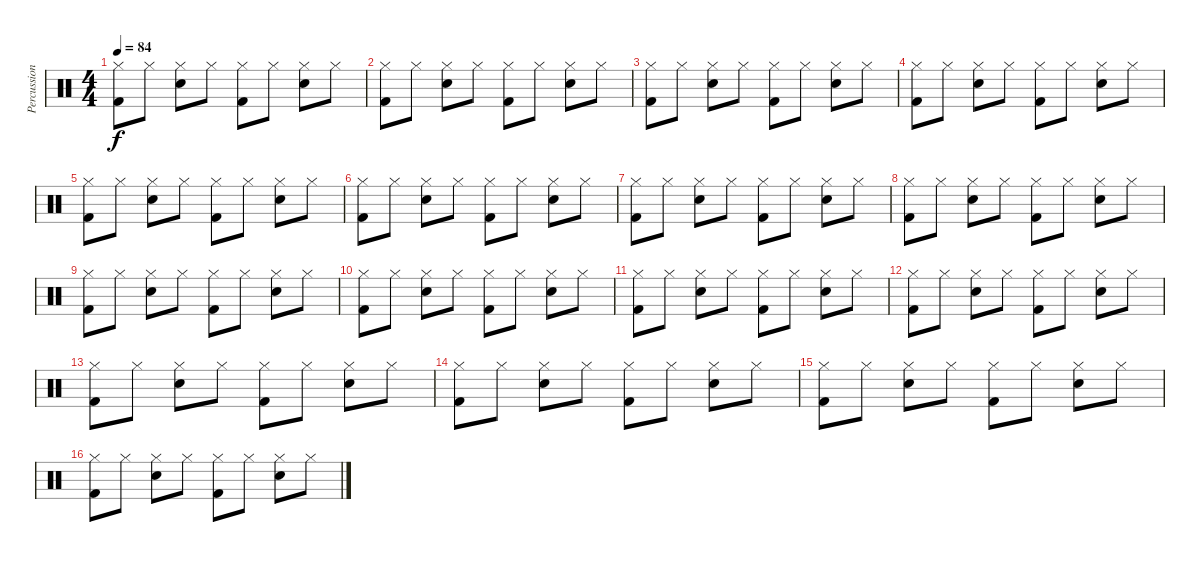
\track ("Percussion" "Percussion") {instrument percussion}
\staff {score}
\articulation defaults
\ts (4 4)
\tempo 84
\clef neutral
\ks c
("Hi-Hat (closed)" "Kick (hit) 2").8{dy f} "Hi-Hat (closed)".8 ("Hi-Hat (closed)" "Electric Snare (hit)").8 "Hi-Hat (closed)".8 ("Hi-Hat (closed)" "Kick (hit) 2").8 "Hi-Hat (closed)".8 ("Hi-Hat (closed)" "Electric Snare (hit)").8 "Hi-Hat (closed)".8 |
("Hi-Hat (closed)" "Kick (hit) 2").8 "Hi-Hat (closed)".8 ("Hi-Hat (closed)" "Electric Snare (hit)").8 "Hi-Hat (closed)".8 ("Hi-Hat (closed)" "Kick (hit) 2").8 "Hi-Hat (closed)".8 ("Hi-Hat (closed)" "Electric Snare (hit)").8 "Hi-Hat (closed)".8 |
("Hi-Hat (closed)" "Kick (hit) 2").8 "Hi-Hat (closed)".8 ("Hi-Hat (closed)" "Electric Snare (hit)").8 "Hi-Hat (closed)".8 ("Hi-Hat (closed)" "Kick (hit) 2").8 "Hi-Hat (closed)".8 ("Hi-Hat (closed)" "Electric Snare (hit)").8 "Hi-Hat (closed)".8 |
("Hi-Hat (closed)" "Kick (hit) 2").8 "Hi-Hat (closed)".8 ("Hi-Hat (closed)" "Electric Snare (hit)").8 "Hi-Hat (closed)".8 ("Hi-Hat (closed)" "Kick (hit) 2").8 "Hi-Hat (closed)".8 ("Hi-Hat (closed)" "Electric Snare (hit)").8 "Hi-Hat (closed)".8 |
("Hi-Hat (closed)" "Kick (hit) 2").8 "Hi-Hat (closed)".8 ("Hi-Hat (closed)" "Electric Snare (hit)").8 "Hi-Hat (closed)".8 ("Hi-Hat (closed)" "Kick (hit) 2").8 "Hi-Hat (closed)".8 ("Hi-Hat (closed)" "Electric Snare (hit)").8 "Hi-Hat (closed)".8 |
("Hi-Hat (closed)" "Kick (hit) 2").8 "Hi-Hat (closed)".8 ("Hi-Hat (closed)" "Electric Snare (hit)").8 "Hi-Hat (closed)".8 ("Hi-Hat (closed)" "Kick (hit) 2").8 "Hi-Hat (closed)".8 ("Hi-Hat (closed)" "Electric Snare (hit)").8 "Hi-Hat (closed)".8 |
("Hi-Hat (closed)" "Kick (hit) 2").8 "Hi-Hat (closed)".8 ("Hi-Hat (closed)" "Electric Snare (hit)").8 "Hi-Hat (closed)".8 ("Hi-Hat (closed)" "Kick (hit) 2").8 "Hi-Hat (closed)".8 ("Hi-Hat (closed)" "Electric Snare (hit)").8 "Hi-Hat (closed)".8 |
("Hi-Hat (closed)" "Kick (hit) 2").8 "Hi-Hat (closed)".8 ("Hi-Hat (closed)" "Electric Snare (hit)").8 "Hi-Hat (closed)".8 ("Hi-Hat (closed)" "Kick (hit) 2").8 "Hi-Hat (closed)".8 ("Hi-Hat (closed)" "Electric Snare (hit)").8 "Hi-Hat (closed)".8 |
("Hi-Hat (closed)" "Kick (hit) 2").8 "Hi-Hat (closed)".8 ("Hi-Hat (closed)" "Electric Snare (hit)").8 "Hi-Hat (closed)".8 ("Hi-Hat (closed)" "Kick (hit) 2").8 "Hi-Hat (closed)".8 ("Hi-Hat (closed)" "Electric Snare (hit)").8 "Hi-Hat (closed)".8 |
("Hi-Hat (closed)" "Kick (hit) 2").8 "Hi-Hat (closed)".8 ("Hi-Hat (closed)" "Electric Snare (hit)").8 "Hi-Hat (closed)".8 ("Hi-Hat (closed)" "Kick (hit) 2").8 "Hi-Hat (closed)".8 ("Hi-Hat (closed)" "Electric Snare (hit)").8 "Hi-Hat (closed)".8 |
("Hi-Hat (closed)" "Kick (hit) 2").8 "Hi-Hat (closed)".8 ("Hi-Hat (closed)" "Electric Snare (hit)").8 "Hi-Hat (closed)".8 ("Hi-Hat (closed)" "Kick (hit) 2").8 "Hi-Hat (closed)".8 ("Hi-Hat (closed)" "Electric Snare (hit)").8 "Hi-Hat (closed)".8 |
("Hi-Hat (closed)" "Kick (hit) 2").8 "Hi-Hat (closed)".8 ("Hi-Hat (closed)" "Electric Snare (hit)").8 "Hi-Hat (closed)".8 ("Hi-Hat (closed)" "Kick (hit) 2").8 "Hi-Hat (closed)".8 ("Hi-Hat (closed)" "Electric Snare (hit)").8 "Hi-Hat (closed)".8 |
("Hi-Hat (closed)" "Kick (hit) 2").8 "Hi-Hat (closed)".8 ("Hi-Hat (closed)" "Electric Snare (hit)").8 "Hi-Hat (closed)".8 ("Hi-Hat (closed)" "Kick (hit) 2").8 "Hi-Hat (closed)".8 ("Hi-Hat (closed)" "Electric Snare (hit)").8 "Hi-Hat (closed)".8 |
("Hi-Hat (closed)" "Kick (hit) 2").8 "Hi-Hat (closed)".8 ("Hi-Hat (closed)" "Electric Snare (hit)").8 "Hi-Hat (closed)".8 ("Hi-Hat (closed)" "Kick (hit) 2").8 "Hi-Hat (closed)".8 ("Hi-Hat (closed)" "Electric Snare (hit)").8 "Hi-Hat (closed)".8 |
("Hi-Hat (closed)" "Kick (hit) 2").8 "Hi-Hat (closed)".8 ("Hi-Hat (closed)" "Electric Snare (hit)").8 "Hi-Hat (closed)".8 ("Hi-Hat (closed)" "Kick (hit) 2").8 "Hi-Hat (closed)".8 ("Hi-Hat (closed)" "Electric Snare (hit)").8 "Hi-Hat (closed)".8 |
("Hi-Hat (closed)" "Kick (hit) 2").8 "Hi-Hat (closed)".8 ("Hi-Hat (closed)" "Electric Snare (hit)").8 "Hi-Hat (closed)".8 ("Hi-Hat (closed)" "Kick (hit) 2").8 "Hi-Hat (closed)".8 ("Hi-Hat (closed)" "Electric Snare (hit)").8 "Hi-Hat (closed)".8
